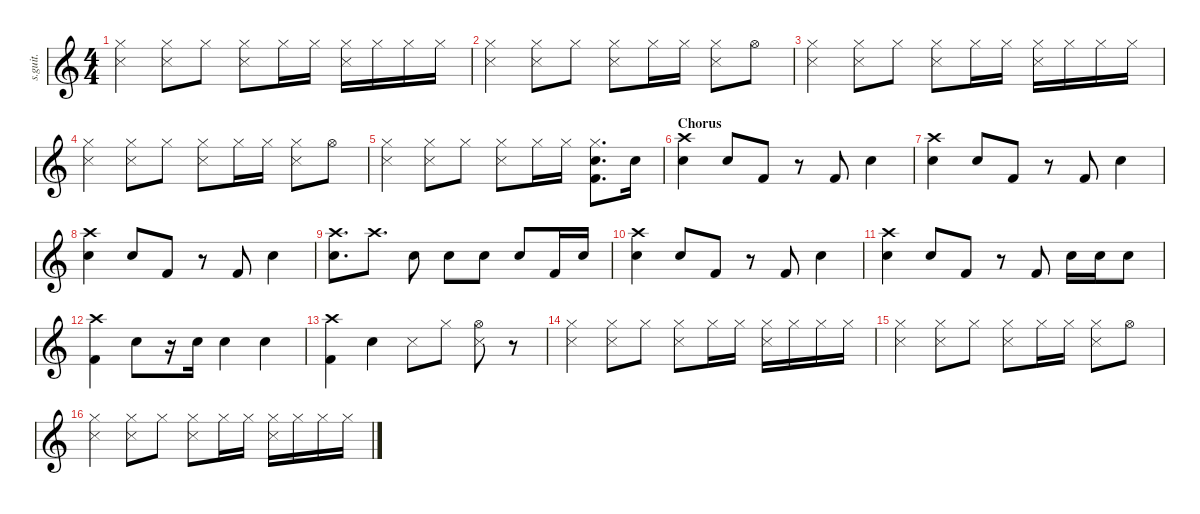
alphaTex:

\defaultSystemsLayout 4
\hideDynamics
\bracketExtendMode nobrackets
\track ("Percussion" "s.guit.") {instrument percussion}
\staff {score}
\articulation defaults
\ts (4 4)
\tempo (102 hide)
\clef g2
\ks c
("Snare (side stick) 3" "Hi-Hat (closed)").4{dy f} ("Snare (side stick) 3" "Hi-Hat (closed)").8 "Hi-Hat (closed)".8 ("Snare (side stick) 3" "Hi-Hat (closed)").8 "Hi-Hat (closed)".16 "Hi-Hat (closed)".16 ("Snare (side stick) 3" "Hi-Hat (closed)").16 "Hi-Hat (closed)".16 "Hi-Hat (closed)".16 "Hi-Hat (closed)".16 |
("Snare (side stick) 3" "Hi-Hat (closed)").4 ("Snare (side stick) 3" "Hi-Hat (closed)").8 "Hi-Hat (closed)".8 ("Snare (side stick) 3" "Hi-Hat (closed)").8 "Hi-Hat (closed)".16 "Hi-Hat (closed)".16 ("Snare (side stick) 3" "Hi-Hat (closed)").8 "Hi-Hat (open)".8 |
("Snare (side stick) 3" "Hi-Hat (closed)").4 ("Snare (side stick) 3" "Hi-Hat (closed)").8 "Hi-Hat (closed)".8 ("Snare (side stick) 3" "Hi-Hat (closed)").8 "Hi-Hat (closed)".16 "Hi-Hat (closed)".16 ("Snare (side stick) 3" "Hi-Hat (closed)").16 "Hi-Hat (closed)".16 "Hi-Hat (closed)".16 "Hi-Hat (closed)".16 |
("Snare (side stick) 3" "Hi-Hat (closed)").4 ("Snare (side stick) 3" "Hi-Hat (closed)").8 "Hi-Hat (closed)".8 ("Snare (side stick) 3" "Hi-Hat (closed)").8 "Hi-Hat (closed)".16 "Hi-Hat (closed)".16 ("Snare (side stick) 3" "Hi-Hat (closed)").8 "Hi-Hat (open)".8 |
("Snare (side stick) 3" "Hi-Hat (closed)").4 ("Snare (side stick) 3" "Hi-Hat (closed)").8 "Hi-Hat (closed)".8 ("Snare (side stick) 3" "Hi-Hat (closed)").8 "Hi-Hat (closed)".16 "Hi-Hat (closed)".16 ("Snare (hit) 2" "Hi-Hat (closed)" "Kick (hit) 2").8{d dy fff} "Snare (hit) 2".16 |
\section ("" "Chorus")
("Crash high (hit)" "Snare (hit) 2").4 "Snare (hit) 2".8 "Kick (hit) 2".8 r.8 "Kick (hit) 2".8 "Snare (hit) 2".4 |
("Crash high (hit)" "Snare (hit) 2").4 "Snare (hit) 2".8 "Kick (hit) 2".8 r.8 "Kick (hit) 2".8 "Snare (hit) 2".4 |
("Crash high (hit)" "Snare (hit) 2").4 "Snare (hit) 2".8 "Kick (hit) 2".8 r.8 "Kick (hit) 2".8 "Snare (hit) 2".4 |
("Crash high (hit)" "Snare (hit) 2").8{d} "Crash high (hit)".8{d} "Snare (hit) 2".8{dy ff} "Snare (hit) 2".8 "Snare (hit) 2".8{dy fff} "Snare (hit) 2".8 "Kick (hit) 2".16 "Snare (hit) 2".16 |
("Crash high (hit)" "Snare (hit) 2").4 "Snare (hit) 2".8 "Kick (hit) 2".8 r.8 "Kick (hit) 2".8 "Snare (hit) 2".4 |
("Crash high (hit)" "Snare (hit) 2").4 "Snare (hit) 2".8 "Kick (hit) 2".8 r.8 "Kick (hit) 2".8 "Snare (hit) 2".16 "Snare (hit) 2".16 "Snare (hit) 2".8 |
("Crash high (hit)" "Kick (hit) 2").4 "Snare (hit) 2".8{dy ff} r.16 "Snare (hit) 2".16 "Snare (hit) 2".4{dy fff} "Snare (hit) 2".4 |
("Crash high (hit)" "Kick (hit) 2").4 "Snare (hit) 2".4{dy ff} "Snare (side stick) 3".8{dy f} "Hi-Hat (closed)".8 ("Snare (side stick) 3" "Hi-Hat (open)").8 r.8 |
("Snare (side stick) 3" "Hi-Hat (closed)").4 ("Snare (side stick) 3" "Hi-Hat (closed)").8 "Hi-Hat (closed)".8 ("Snare (side stick) 3" "Hi-Hat (closed)").8 "Hi-Hat (closed)".16 "Hi-Hat (closed)".16 ("Snare (side stick) 3" "Hi-Hat (closed)").16 "Hi-Hat (closed)".16 "Hi-Hat (closed)".16 "Hi-Hat (closed)".16 |
("Snare (side stick) 3" "Hi-Hat (closed)").4 ("Snare (side stick) 3" "Hi-Hat (closed)").8 "Hi-Hat (closed)".8 ("Snare (side stick) 3" "Hi-Hat (closed)").8 "Hi-Hat (closed)".16 "Hi-Hat (closed)".16 ("Snare (side stick) 3" "Hi-Hat (closed)").8 "Hi-Hat (open)".8 |
("Snare (side stick) 3" "Hi-Hat (closed)").4 ("Snare (side stick) 3" "Hi-Hat (closed)").8 "Hi-Hat (closed)".8 ("Snare (side stick) 3" "Hi-Hat (closed)").8 "Hi-Hat (closed)".16 "Hi-Hat (closed)".16 ("Snare (side stick) 3" "Hi-Hat (closed)").16 "Hi-Hat (closed)".16 "Hi-Hat (closed)".16 "Hi-Hat (closed)".16
